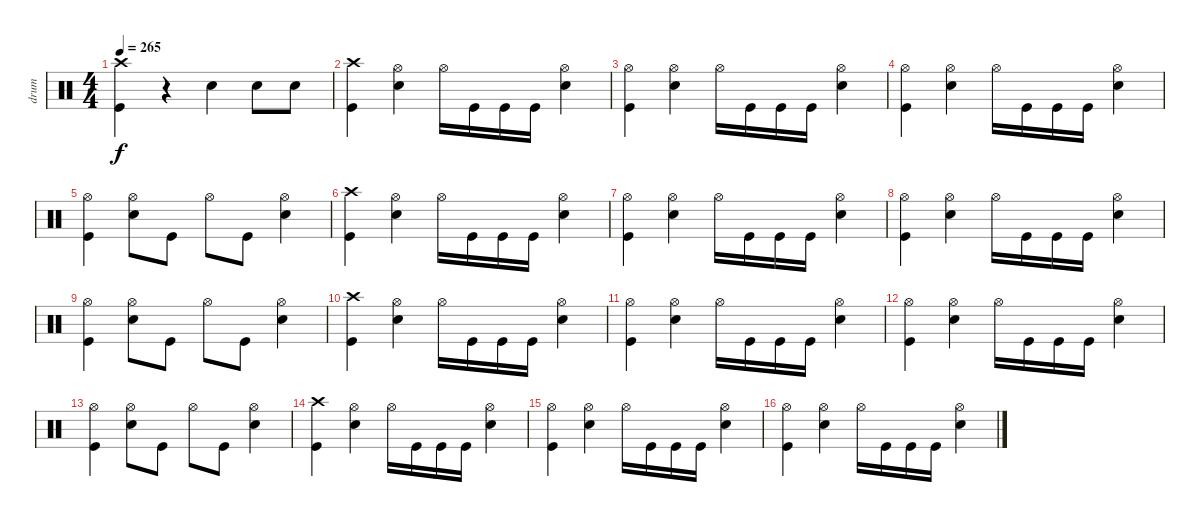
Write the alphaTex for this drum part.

\track ("drum" "drum") {instrument percussion}
\staff {score}
\articulation defaults
\ts (4 4)
\tempo 265
\clef neutral
\ks c
("Kick (hit)" "Crash high (hit)").4{dy f} r.4 "Electric Snare (hit)".4 "Electric Snare (hit)".8 "Electric Snare (hit)".8 |
("Kick (hit)" "Crash high (hit)").4 ("Electric Snare (hit)" "Hi-Hat (open)").4 "Hi-Hat (open)".16 "Kick (hit)".16 "Kick (hit)".16 "Kick (hit)".16 ("Electric Snare (hit)" "Hi-Hat (open)").4 |
("Kick (hit)" "Hi-Hat (open)").4 ("Electric Snare (hit)" "Hi-Hat (open)").4 "Hi-Hat (open)".16 "Kick (hit)".16 "Kick (hit)".16 "Kick (hit)".16 ("Electric Snare (hit)" "Hi-Hat (open)").4 |
("Kick (hit)" "Hi-Hat (open)").4 ("Electric Snare (hit)" "Hi-Hat (open)").4 "Hi-Hat (open)".16 "Kick (hit)".16 "Kick (hit)".16 "Kick (hit)".16 ("Electric Snare (hit)" "Hi-Hat (open)").4 |
("Kick (hit)" "Hi-Hat (open)").4 ("Electric Snare (hit)" "Hi-Hat (open)").8 "Kick (hit)".8 "Hi-Hat (open)".8 "Kick (hit)".8 ("Electric Snare (hit)" "Hi-Hat (open)").4 |
("Kick (hit)" "Crash high (hit)").4 ("Electric Snare (hit)" "Hi-Hat (open)").4 "Hi-Hat (open)".16 "Kick (hit)".16 "Kick (hit)".16 "Kick (hit)".16 ("Electric Snare (hit)" "Hi-Hat (open)").4 |
("Kick (hit)" "Hi-Hat (open)").4 ("Electric Snare (hit)" "Hi-Hat (open)").4 "Hi-Hat (open)".16 "Kick (hit)".16 "Kick (hit)".16 "Kick (hit)".16 ("Electric Snare (hit)" "Hi-Hat (open)").4 |
("Kick (hit)" "Hi-Hat (open)").4 ("Electric Snare (hit)" "Hi-Hat (open)").4 "Hi-Hat (open)".16 "Kick (hit)".16 "Kick (hit)".16 "Kick (hit)".16 ("Electric Snare (hit)" "Hi-Hat (open)").4 |
("Kick (hit)" "Hi-Hat (open)").4 ("Electric Snare (hit)" "Hi-Hat (open)").8 "Kick (hit)".8 "Hi-Hat (open)".8 "Kick (hit)".8 ("Electric Snare (hit)" "Hi-Hat (open)").4 |
("Kick (hit)" "Crash high (hit)").4 ("Electric Snare (hit)" "Hi-Hat (open)").4 "Hi-Hat (open)".16 "Kick (hit)".16 "Kick (hit)".16 "Kick (hit)".16 ("Electric Snare (hit)" "Hi-Hat (open)").4 |
("Kick (hit)" "Hi-Hat (open)").4 ("Electric Snare (hit)" "Hi-Hat (open)").4 "Hi-Hat (open)".16 "Kick (hit)".16 "Kick (hit)".16 "Kick (hit)".16 ("Electric Snare (hit)" "Hi-Hat (open)").4 |
("Kick (hit)" "Hi-Hat (open)").4 ("Electric Snare (hit)" "Hi-Hat (open)").4 "Hi-Hat (open)".16 "Kick (hit)".16 "Kick (hit)".16 "Kick (hit)".16 ("Electric Snare (hit)" "Hi-Hat (open)").4 |
("Kick (hit)" "Hi-Hat (open)").4 ("Electric Snare (hit)" "Hi-Hat (open)").8 "Kick (hit)".8 "Hi-Hat (open)".8 "Kick (hit)".8 ("Electric Snare (hit)" "Hi-Hat (open)").4 |
("Kick (hit)" "Crash high (hit)").4 ("Electric Snare (hit)" "Hi-Hat (open)").4 "Hi-Hat (open)".16 "Kick (hit)".16 "Kick (hit)".16 "Kick (hit)".16 ("Electric Snare (hit)" "Hi-Hat (open)").4 |
("Kick (hit)" "Hi-Hat (open)").4 ("Electric Snare (hit)" "Hi-Hat (open)").4 "Hi-Hat (open)".16 "Kick (hit)".16 "Kick (hit)".16 "Kick (hit)".16 ("Electric Snare (hit)" "Hi-Hat (open)").4 |
("Kick (hit)" "Hi-Hat (open)").4 ("Electric Snare (hit)" "Hi-Hat (open)").4 "Hi-Hat (open)".16 "Kick (hit)".16 "Kick (hit)".16 "Kick (hit)".16 ("Electric Snare (hit)" "Hi-Hat (open)").4
